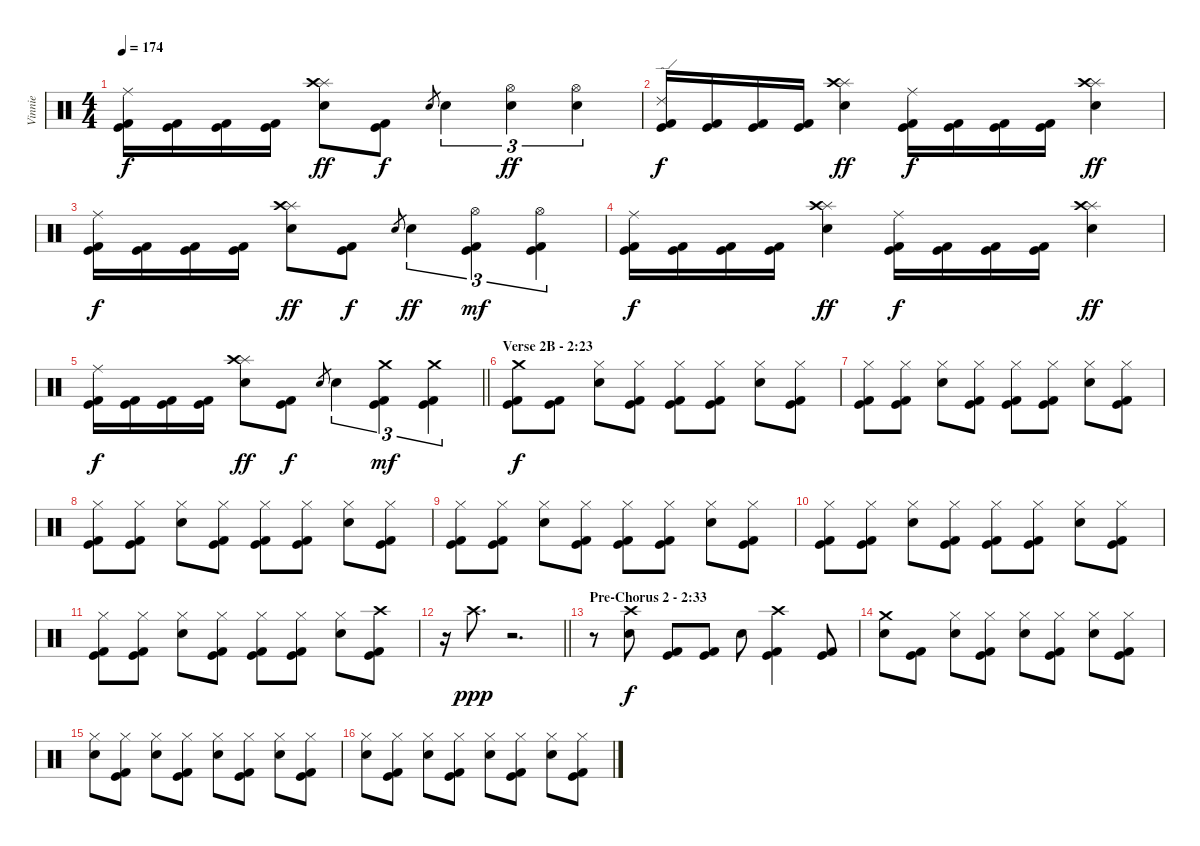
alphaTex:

\track ("Vinnie" "Vinnie") {instrument percussion}
\staff {score}
\articulation defaults
\ts (4 4)
\tempo 174
\clef neutral
\ks c
("Ride (middle)" "Kick (hit)" "Kick (hit) 2").16{dy f} ("Kick (hit)" "Kick (hit) 2").16 ("Kick (hit)" "Kick (hit) 2").16 ("Kick (hit)" "Kick (hit) 2").16 ("Splash (hit)" "Crash high (hit)" "Electric Snare (hit)").8{dy ff} ("Kick (hit)" "Kick (hit) 2").8{dy f} "Electric Snare (hit)".8{gr} "Electric Snare (hit)".4{tu (3 2)} ("Hi-Hat (open)" "Electric Snare (hit)").4{tu (3 2) dy ff} ("Hi-Hat (open)" "Electric Snare (hit)").4{tu (3 2)} |
("Ride (edge) 2" "Kick (hit)" "Kick (hit) 2").16{dy f} ("Kick (hit)" "Kick (hit) 2").16 ("Kick (hit)" "Kick (hit) 2").16 ("Kick (hit)" "Kick (hit) 2").16 ("Splash (hit)" "Crash high (hit)" "Electric Snare (hit)").4{dy ff} ("Ride (middle)" "Kick (hit)" "Kick (hit) 2").16{dy f} ("Kick (hit)" "Kick (hit) 2").16 ("Kick (hit)" "Kick (hit) 2").16 ("Kick (hit)" "Kick (hit) 2").16 ("Splash (hit)" "Crash high (hit)" "Electric Snare (hit)").4{dy ff} |
("Ride (middle)" "Kick (hit)" "Kick (hit) 2").16{dy f} ("Kick (hit)" "Kick (hit) 2").16 ("Kick (hit)" "Kick (hit) 2").16 ("Kick (hit)" "Kick (hit) 2").16 ("Splash (hit)" "Crash high (hit)" "Electric Snare (hit)").8{dy ff} ("Kick (hit)" "Kick (hit) 2").8{dy f} "Electric Snare (hit)".8{gr} "Electric Snare (hit)".4{tu (3 2) dy ff} ("Hi-Hat (open)" "Kick (hit)" "Kick (hit) 2").4{tu (3 2) dy mf} ("Hi-Hat (open)" "Kick (hit)" "Kick (hit) 2").4{tu (3 2)} |
("Ride (middle)" "Kick (hit)" "Kick (hit) 2").16{dy f} ("Kick (hit)" "Kick (hit) 2").16 ("Kick (hit)" "Kick (hit) 2").16 ("Kick (hit)" "Kick (hit) 2").16 ("Splash (hit)" "Crash high (hit)" "Electric Snare (hit)").4{dy ff} ("Ride (middle)" "Kick (hit)" "Kick (hit) 2").16{dy f} ("Kick (hit)" "Kick (hit) 2").16 ("Kick (hit)" "Kick (hit) 2").16 ("Kick (hit)" "Kick (hit) 2").16 ("Splash (hit)" "Crash high (hit)" "Electric Snare (hit)").4{dy ff} |
\barLineRight lightlight
("Ride (middle)" "Kick (hit)" "Kick (hit) 2").16{dy f} ("Kick (hit)" "Kick (hit) 2").16 ("Kick (hit)" "Kick (hit) 2").16 ("Kick (hit)" "Kick (hit) 2").16 ("Splash (hit)" "Crash high (hit)" "Electric Snare (hit)").8{dy ff} ("Kick (hit)" "Kick (hit) 2").8{dy f} "Electric Snare (hit)".8{gr} "Electric Snare (hit)".4{tu (3 2)} ("Crash medium (hit)" "Kick (hit)" "Kick (hit) 2").4{tu (3 2) dy mf} ("Crash medium (hit)" "Kick (hit)" "Kick (hit) 2").4{tu (3 2)} |
\section ("" "Verse 2B - 2:23")
("Crash medium (hit)" "Kick (hit)" "Kick (hit) 2").8{dy f} ("Kick (hit)" "Kick (hit) 2").8 ("Hi-Hat (closed)" "Electric Snare (hit)").8 ("Hi-Hat (closed)" "Kick (hit)" "Kick (hit) 2").8 ("Hi-Hat (closed)" "Kick (hit)" "Kick (hit) 2").8 ("Hi-Hat (closed)" "Kick (hit)" "Kick (hit) 2").8 ("Hi-Hat (closed)" "Electric Snare (hit)").8 ("Hi-Hat (closed)" "Kick (hit)" "Kick (hit) 2").8 |
("Hi-Hat (closed)" "Kick (hit)" "Kick (hit) 2").8 ("Hi-Hat (closed)" "Kick (hit)" "Kick (hit) 2").8 ("Hi-Hat (closed)" "Electric Snare (hit)").8 ("Hi-Hat (closed)" "Kick (hit)" "Kick (hit) 2").8 ("Hi-Hat (closed)" "Kick (hit)" "Kick (hit) 2").8 ("Hi-Hat (closed)" "Kick (hit)" "Kick (hit) 2").8 ("Hi-Hat (closed)" "Electric Snare (hit)").8 ("Hi-Hat (closed)" "Kick (hit)" "Kick (hit) 2").8 |
("Hi-Hat (closed)" "Kick (hit)" "Kick (hit) 2").8 ("Hi-Hat (closed)" "Kick (hit)" "Kick (hit) 2").8 ("Hi-Hat (closed)" "Electric Snare (hit)").8 ("Hi-Hat (closed)" "Kick (hit)" "Kick (hit) 2").8 ("Hi-Hat (closed)" "Kick (hit)" "Kick (hit) 2").8 ("Hi-Hat (closed)" "Kick (hit)" "Kick (hit) 2").8 ("Hi-Hat (closed)" "Electric Snare (hit)").8 ("Hi-Hat (closed)" "Kick (hit)" "Kick (hit) 2").8 |
("Hi-Hat (closed)" "Kick (hit)" "Kick (hit) 2").8 ("Hi-Hat (closed)" "Kick (hit)" "Kick (hit) 2").8 ("Hi-Hat (closed)" "Electric Snare (hit)").8 ("Hi-Hat (closed)" "Kick (hit)" "Kick (hit) 2").8 ("Hi-Hat (closed)" "Kick (hit)" "Kick (hit) 2").8 ("Hi-Hat (closed)" "Kick (hit)" "Kick (hit) 2").8 ("Hi-Hat (closed)" "Electric Snare (hit)").8 ("Hi-Hat (closed)" "Kick (hit)" "Kick (hit) 2").8 |
("Hi-Hat (closed)" "Kick (hit)" "Kick (hit) 2").8 ("Hi-Hat (closed)" "Kick (hit)" "Kick (hit) 2").8 ("Hi-Hat (closed)" "Electric Snare (hit)").8 ("Hi-Hat (closed)" "Kick (hit)" "Kick (hit) 2").8 ("Hi-Hat (closed)" "Kick (hit)" "Kick (hit) 2").8 ("Hi-Hat (closed)" "Kick (hit)" "Kick (hit) 2").8 ("Hi-Hat (closed)" "Electric Snare (hit)").8 ("Hi-Hat (closed)" "Kick (hit)" "Kick (hit) 2").8 |
("Hi-Hat (closed)" "Kick (hit)" "Kick (hit) 2").8 ("Hi-Hat (closed)" "Kick (hit)" "Kick (hit) 2").8 ("Hi-Hat (closed)" "Electric Snare (hit)").8 ("Hi-Hat (closed)" "Kick (hit)" "Kick (hit) 2").8 ("Hi-Hat (closed)" "Kick (hit)" "Kick (hit) 2").8 ("Hi-Hat (closed)" "Kick (hit)" "Kick (hit) 2").8 ("Hi-Hat (closed)" "Electric Snare (hit)").8 ("Crash high (hit)" "Kick (hit)" "Kick (hit) 2").8 |
\barLineRight lightlight
r.16 "Crash high (hit)".8{d dy ppp} r.2{d volume 16} |
\section ("" "Pre-Chorus 2 - 2:33")
r.8 ("Crash high (hit)" "Electric Snare (hit)").8{dy f} ("Kick (hit)" "Kick (hit) 2").8 ("Kick (hit)" "Kick (hit) 2").8 "Electric Snare (hit)".8 ("Crash high (hit)" "Kick (hit)" "Kick (hit) 2").4 ("Kick (hit)" "Kick (hit) 2").8 |
("Crash medium (hit)" "Electric Snare (hit)").8 ("Kick (hit)" "Kick (hit) 2").8 ("Hi-Hat (closed)" "Electric Snare (hit)").8 ("Hi-Hat (closed)" "Kick (hit)" "Kick (hit) 2").8 ("Hi-Hat (closed)" "Electric Snare (hit)").8 ("Hi-Hat (closed)" "Kick (hit)" "Kick (hit) 2").8 ("Hi-Hat (closed)" "Electric Snare (hit)").8 ("Hi-Hat (closed)" "Kick (hit)" "Kick (hit) 2").8 |
("Hi-Hat (closed)" "Electric Snare (hit)").8 ("Hi-Hat (closed)" "Kick (hit)" "Kick (hit) 2").8 ("Hi-Hat (closed)" "Electric Snare (hit)").8 ("Hi-Hat (closed)" "Kick (hit)" "Kick (hit) 2").8 ("Hi-Hat (closed)" "Electric Snare (hit)").8 ("Hi-Hat (closed)" "Kick (hit)" "Kick (hit) 2").8 ("Hi-Hat (closed)" "Electric Snare (hit)").8 ("Hi-Hat (closed)" "Kick (hit)" "Kick (hit) 2").8 |
("Hi-Hat (closed)" "Electric Snare (hit)").8 ("Hi-Hat (closed)" "Kick (hit)" "Kick (hit) 2").8 ("Hi-Hat (closed)" "Electric Snare (hit)").8 ("Hi-Hat (closed)" "Kick (hit)" "Kick (hit) 2").8 ("Hi-Hat (closed)" "Electric Snare (hit)").8 ("Hi-Hat (closed)" "Kick (hit)" "Kick (hit) 2").8 ("Hi-Hat (closed)" "Electric Snare (hit)").8 ("Hi-Hat (closed)" "Kick (hit)" "Kick (hit) 2").8
